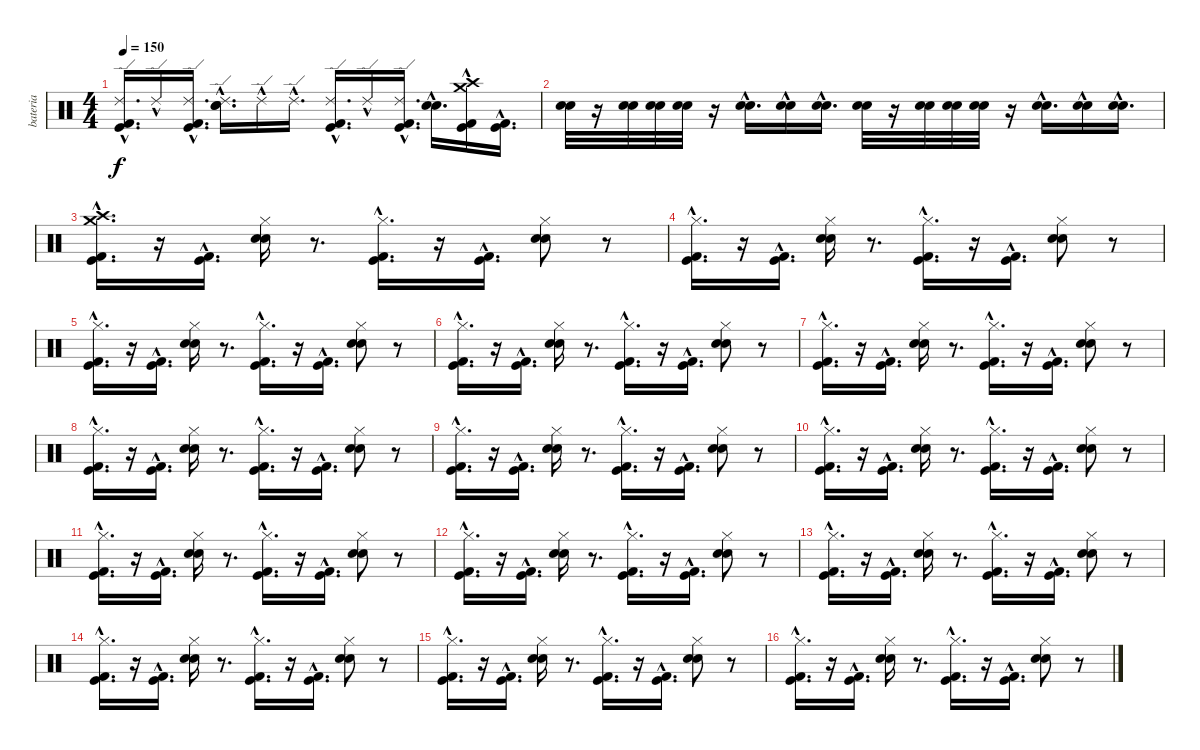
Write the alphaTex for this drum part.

\track ("bateria" "bateria") {instrument percussion}
\staff {score}
\articulation defaults
\ts (4 4)
\tempo 150
\clef neutral
\ks c
("Kick (hit) 2"{hac} "Kick (hit)"{hac} "Ride (edge) 2"{hac}).16{d dy f} "Ride (edge) 2"{hac}.16 ("Kick (hit) 2"{hac} "Kick (hit)"{hac} "Ride (edge) 2"{hac}).16{d} ("Electric Snare (hit)"{hac} "Snare (hit) 2"{hac} "Ride (edge) 2"{hac}).16{d} "Ride (edge) 2"{hac}.16 "Ride (edge) 2"{hac}.16{d} ("Kick (hit) 2"{hac} "Kick (hit)"{hac} "Ride (edge) 2"{hac}).16{d} "Ride (edge) 2"{hac}.16 ("Kick (hit)"{hac} "Kick (hit) 2"{hac} "Ride (edge) 2"{hac}).16{d} ("Electric Snare (hit)"{hac} "Snare (hit) 2"{hac}).16{d} ("Kick (hit) 2"{hac} "Kick (hit)"{hac} "Crash high (hit)"{hac} "Crash medium (hit)"{hac}).16 ("Kick (hit) 2"{hac} "Kick (hit)"{hac}).16{d} |
("Electric Snare (hit)" "Snare (hit) 2").32 r.16 ("Electric Snare (hit)" "Snare (hit) 2").32 ("Electric Snare (hit)" "Snare (hit) 2").32 ("Electric Snare (hit)" "Snare (hit) 2").32 r.16 ("Electric Snare (hit)"{hac} "Snare (hit) 2"{hac}).16{d} ("Electric Snare (hit)"{hac} "Snare (hit) 2"{hac}).16 ("Electric Snare (hit)"{hac} "Snare (hit) 2"{hac}).16{d} ("Electric Snare (hit)" "Snare (hit) 2").32 r.16 ("Electric Snare (hit)" "Snare (hit) 2").32 ("Electric Snare (hit)" "Snare (hit) 2").32 ("Electric Snare (hit)" "Snare (hit) 2").32 r.16 ("Electric Snare (hit)"{hac} "Snare (hit) 2"{hac}).16{d} ("Electric Snare (hit)"{hac} "Snare (hit) 2"{hac}).16 ("Electric Snare (hit)"{hac} "Snare (hit) 2"{hac}).16{d} |
("Crash high (hit)"{hac} "Crash medium (hit)"{hac} "Kick (hit)"{hac} "Kick (hit) 2"{hac}).16{d} r.16 ("Kick (hit)"{hac} "Kick (hit) 2"{hac}).16{d} ("Hi-Hat (closed)" "Electric Snare (hit)" "Snare (hit) 2").16 r.8{d} ("Hi-Hat (closed)"{hac} "Kick (hit) 2"{hac} "Kick (hit)"{hac}).16{d} r.16 ("Kick (hit) 2"{hac} "Kick (hit)"{hac}).16{d} ("Hi-Hat (closed)" "Electric Snare (hit)" "Snare (hit) 2").8 r.8 |
("Hi-Hat (closed)"{hac} "Kick (hit)"{hac} "Kick (hit) 2"{hac}).16{d} r.16 ("Kick (hit)"{hac} "Kick (hit) 2"{hac}).16{d} ("Hi-Hat (closed)" "Electric Snare (hit)" "Snare (hit) 2").16 r.8{d} ("Hi-Hat (closed)"{hac} "Kick (hit) 2"{hac} "Kick (hit)"{hac}).16{d} r.16 ("Kick (hit) 2"{hac} "Kick (hit)"{hac}).16{d} ("Hi-Hat (closed)" "Electric Snare (hit)" "Snare (hit) 2").8 r.8 |
("Hi-Hat (closed)"{hac} "Kick (hit)"{hac} "Kick (hit) 2"{hac}).16{d} r.16 ("Kick (hit)"{hac} "Kick (hit) 2"{hac}).16{d} ("Hi-Hat (closed)" "Electric Snare (hit)" "Snare (hit) 2").16 r.8{d} ("Hi-Hat (closed)"{hac} "Kick (hit) 2"{hac} "Kick (hit)"{hac}).16{d} r.16 ("Kick (hit) 2"{hac} "Kick (hit)"{hac}).16{d} ("Hi-Hat (closed)" "Electric Snare (hit)" "Snare (hit) 2").8 r.8 |
("Hi-Hat (closed)"{hac} "Kick (hit)"{hac} "Kick (hit) 2"{hac}).16{d} r.16 ("Kick (hit)"{hac} "Kick (hit) 2"{hac}).16{d} ("Hi-Hat (closed)" "Electric Snare (hit)" "Snare (hit) 2").16 r.8{d} ("Hi-Hat (closed)"{hac} "Kick (hit) 2"{hac} "Kick (hit)"{hac}).16{d} r.16 ("Kick (hit) 2"{hac} "Kick (hit)"{hac}).16{d} ("Hi-Hat (closed)" "Electric Snare (hit)" "Snare (hit) 2").8 r.8 |
("Hi-Hat (closed)"{hac} "Kick (hit)"{hac} "Kick (hit) 2"{hac}).16{d} r.16 ("Kick (hit)"{hac} "Kick (hit) 2"{hac}).16{d} ("Hi-Hat (closed)" "Electric Snare (hit)" "Snare (hit) 2").16 r.8{d} ("Hi-Hat (closed)"{hac} "Kick (hit) 2"{hac} "Kick (hit)"{hac}).16{d} r.16 ("Kick (hit) 2"{hac} "Kick (hit)"{hac}).16{d} ("Hi-Hat (closed)" "Electric Snare (hit)" "Snare (hit) 2").8 r.8 |
("Hi-Hat (closed)"{hac} "Kick (hit)"{hac} "Kick (hit) 2"{hac}).16{d} r.16 ("Kick (hit)"{hac} "Kick (hit) 2"{hac}).16{d} ("Hi-Hat (closed)" "Electric Snare (hit)" "Snare (hit) 2").16 r.8{d} ("Hi-Hat (closed)"{hac} "Kick (hit) 2"{hac} "Kick (hit)"{hac}).16{d} r.16 ("Kick (hit) 2"{hac} "Kick (hit)"{hac}).16{d} ("Hi-Hat (closed)" "Electric Snare (hit)" "Snare (hit) 2").8 r.8 |
("Hi-Hat (closed)"{hac} "Kick (hit)"{hac} "Kick (hit) 2"{hac}).16{d} r.16 ("Kick (hit)"{hac} "Kick (hit) 2"{hac}).16{d} ("Hi-Hat (closed)" "Electric Snare (hit)" "Snare (hit) 2").16 r.8{d} ("Hi-Hat (closed)"{hac} "Kick (hit) 2"{hac} "Kick (hit)"{hac}).16{d} r.16 ("Kick (hit) 2"{hac} "Kick (hit)"{hac}).16{d} ("Hi-Hat (closed)" "Electric Snare (hit)" "Snare (hit) 2").8 r.8 |
("Hi-Hat (closed)"{hac} "Kick (hit)"{hac} "Kick (hit) 2"{hac}).16{d} r.16 ("Kick (hit)"{hac} "Kick (hit) 2"{hac}).16{d} ("Hi-Hat (closed)" "Electric Snare (hit)" "Snare (hit) 2").16 r.8{d} ("Hi-Hat (closed)"{hac} "Kick (hit) 2"{hac} "Kick (hit)"{hac}).16{d} r.16 ("Kick (hit) 2"{hac} "Kick (hit)"{hac}).16{d} ("Hi-Hat (closed)" "Electric Snare (hit)" "Snare (hit) 2").8 r.8 |
("Hi-Hat (closed)"{hac} "Kick (hit)"{hac} "Kick (hit) 2"{hac}).16{d} r.16 ("Kick (hit)"{hac} "Kick (hit) 2"{hac}).16{d} ("Hi-Hat (closed)" "Electric Snare (hit)" "Snare (hit) 2").16 r.8{d} ("Hi-Hat (closed)"{hac} "Kick (hit) 2"{hac} "Kick (hit)"{hac}).16{d} r.16 ("Kick (hit) 2"{hac} "Kick (hit)"{hac}).16{d} ("Hi-Hat (closed)" "Electric Snare (hit)" "Snare (hit) 2").8 r.8 |
("Hi-Hat (closed)"{hac} "Kick (hit)"{hac} "Kick (hit) 2"{hac}).16{d} r.16 ("Kick (hit)"{hac} "Kick (hit) 2"{hac}).16{d} ("Hi-Hat (closed)" "Electric Snare (hit)" "Snare (hit) 2").16 r.8{d} ("Hi-Hat (closed)"{hac} "Kick (hit) 2"{hac} "Kick (hit)"{hac}).16{d} r.16 ("Kick (hit) 2"{hac} "Kick (hit)"{hac}).16{d} ("Hi-Hat (closed)" "Electric Snare (hit)" "Snare (hit) 2").8 r.8 |
("Hi-Hat (closed)"{hac} "Kick (hit)"{hac} "Kick (hit) 2"{hac}).16{d} r.16 ("Kick (hit)"{hac} "Kick (hit) 2"{hac}).16{d} ("Hi-Hat (closed)" "Electric Snare (hit)" "Snare (hit) 2").16 r.8{d} ("Hi-Hat (closed)"{hac} "Kick (hit) 2"{hac} "Kick (hit)"{hac}).16{d} r.16 ("Kick (hit) 2"{hac} "Kick (hit)"{hac}).16{d} ("Hi-Hat (closed)" "Electric Snare (hit)" "Snare (hit) 2").8 r.8 |
("Hi-Hat (closed)"{hac} "Kick (hit)"{hac} "Kick (hit) 2"{hac}).16{d} r.16 ("Kick (hit)"{hac} "Kick (hit) 2"{hac}).16{d} ("Hi-Hat (closed)" "Electric Snare (hit)" "Snare (hit) 2").16 r.8{d} ("Hi-Hat (closed)"{hac} "Kick (hit) 2"{hac} "Kick (hit)"{hac}).16{d} r.16 ("Kick (hit) 2"{hac} "Kick (hit)"{hac}).16{d} ("Hi-Hat (closed)" "Electric Snare (hit)" "Snare (hit) 2").8 r.8 |
("Hi-Hat (closed)"{hac} "Kick (hit)"{hac} "Kick (hit) 2"{hac}).16{d} r.16 ("Kick (hit)"{hac} "Kick (hit) 2"{hac}).16{d} ("Hi-Hat (closed)" "Electric Snare (hit)" "Snare (hit) 2").16 r.8{d} ("Hi-Hat (closed)"{hac} "Kick (hit) 2"{hac} "Kick (hit)"{hac}).16{d} r.16 ("Kick (hit) 2"{hac} "Kick (hit)"{hac}).16{d} ("Hi-Hat (closed)" "Electric Snare (hit)" "Snare (hit) 2").8 r.8 |
("Hi-Hat (closed)"{hac} "Kick (hit)"{hac} "Kick (hit) 2"{hac}).16{d} r.16 ("Kick (hit)"{hac} "Kick (hit) 2"{hac}).16{d} ("Hi-Hat (closed)" "Electric Snare (hit)" "Snare (hit) 2").16 r.8{d} ("Hi-Hat (closed)"{hac} "Kick (hit) 2"{hac} "Kick (hit)"{hac}).16{d} r.16 ("Kick (hit) 2"{hac} "Kick (hit)"{hac}).16{d} ("Hi-Hat (closed)" "Electric Snare (hit)" "Snare (hit) 2").8 r.8
